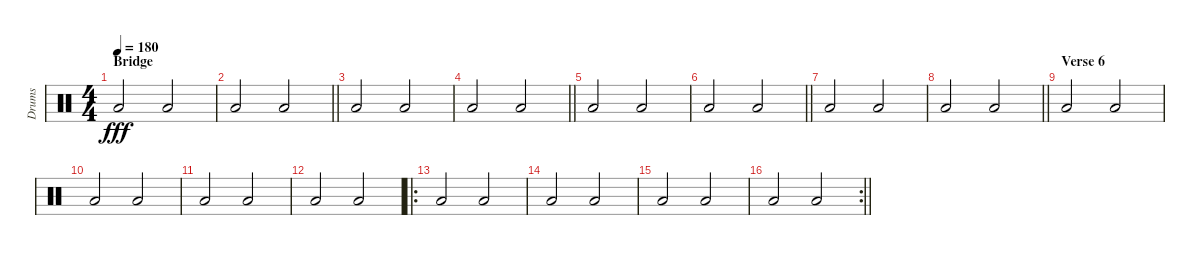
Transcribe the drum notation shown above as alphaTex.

\track ("Drums" "Drums") {instrument percussion}
\staff {score}
\articulation defaults
\ts (4 4)
\section ("" "Bridge")
\tempo 180
\clef neutral
\ks c "Low Floor Tom (hit)".2{dy fff} "Low Floor Tom (hit)".2
|
\barLineRight lightlight "Low Floor Tom (hit)".2 "Low Floor Tom (hit)".2
|
"Low Floor Tom (hit)".2 "Low Floor Tom (hit)".2 |
\barLineRight lightlight "Low Floor Tom (hit)".2 "Low Floor Tom (hit)".2
|
"Low Floor Tom (hit)".2 "Low Floor Tom (hit)".2 |
\barLineRight lightlight "Low Floor Tom (hit)".2 "Low Floor Tom (hit)".2
|
"Low Floor Tom (hit)".2 "Low Floor Tom (hit)".2 |
\barLineRight lightlight "Low Floor Tom (hit)".2 "Low Floor Tom (hit)".2
|
\section ("" "Verse 6")
"Low Floor Tom (hit)".2 "Low Floor Tom (hit)".2 |
"Low Floor Tom (hit)".2 "Low Floor Tom (hit)".2 |
"Low Floor Tom (hit)".2 "Low Floor Tom (hit)".2 |
"Low Floor Tom (hit)".2 "Low Floor Tom (hit)".2 |
\ro "Low Floor Tom (hit)".2 "Low Floor Tom (hit)".2
|
"Low Floor Tom (hit)".2 "Low Floor Tom (hit)".2 |
"Low Floor Tom (hit)".2 "Low Floor Tom (hit)".2 |
\rc 2
\barLineRight lightlight "Low Floor Tom (hit)".2 "Low Floor Tom (hit)".2
